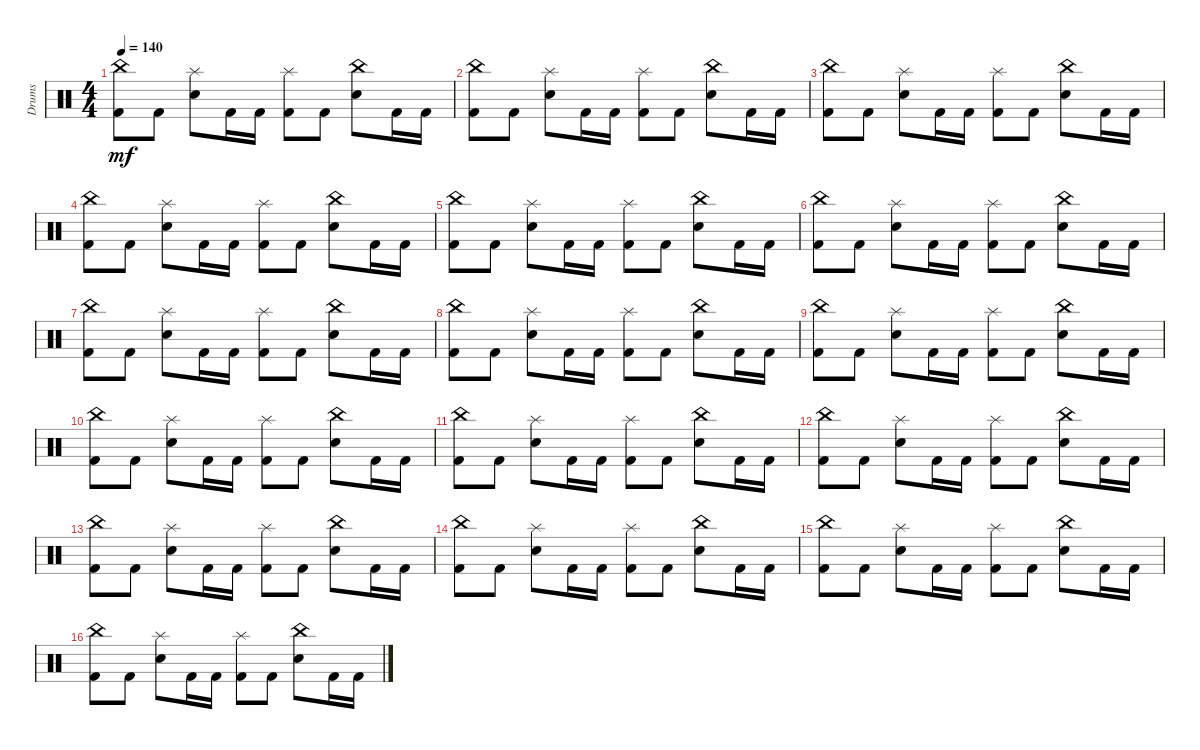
\track ("Drums" "Drums") {instrument percussion}
\staff {score}
\articulation defaults
\ts (4 4)
\tempo 140
\clef neutral
\ks c
("China (hit)" "Kick (hit) 2").8{dy mf} "Kick (hit) 2".8 ("Splash (hit)" "Electric Snare (hit)").8 "Kick (hit) 2".16 "Kick (hit) 2".16 ("Kick (hit) 2" "Splash (hit)").8 "Kick (hit) 2".8 ("Electric Snare (hit)" "China (hit)").8 "Kick (hit) 2".16 "Kick (hit) 2".16 |
("China (hit)" "Kick (hit) 2").8 "Kick (hit) 2".8 ("Electric Snare (hit)" "Splash (hit)").8 "Kick (hit) 2".16 "Kick (hit) 2".16 ("Kick (hit) 2" "Splash (hit)").8 "Kick (hit) 2".8 ("Electric Snare (hit)" "China (hit)").8 "Kick (hit) 2".16 "Kick (hit) 2".16 |
("China (hit)" "Kick (hit) 2").8 "Kick (hit) 2".8 ("Splash (hit)" "Electric Snare (hit)").8 "Kick (hit) 2".16 "Kick (hit) 2".16 ("Splash (hit)" "Kick (hit) 2").8 "Kick (hit) 2".8 ("Electric Snare (hit)" "China (hit)").8 "Kick (hit) 2".16 "Kick (hit) 2".16 |
("China (hit)" "Kick (hit) 2").8 "Kick (hit) 2".8 ("Electric Snare (hit)" "Splash (hit)").8 "Kick (hit) 2".16 "Kick (hit) 2".16 ("Kick (hit) 2" "Splash (hit)").8 "Kick (hit) 2".8 ("Electric Snare (hit)" "China (hit)").8 "Kick (hit) 2".16 "Kick (hit) 2".16 |
("China (hit)" "Kick (hit) 2").8 "Kick (hit) 2".8 ("Electric Snare (hit)" "Splash (hit)").8 "Kick (hit) 2".16 "Kick (hit) 2".16 ("Kick (hit) 2" "Splash (hit)").8 "Kick (hit) 2".8 ("Electric Snare (hit)" "China (hit)").8 "Kick (hit) 2".16 "Kick (hit) 2".16 |
("China (hit)" "Kick (hit) 2").8 "Kick (hit) 2".8 ("Splash (hit)" "Electric Snare (hit)").8 "Kick (hit) 2".16 "Kick (hit) 2".16 ("Kick (hit) 2" "Splash (hit)").8 "Kick (hit) 2".8 ("Electric Snare (hit)" "China (hit)").8 "Kick (hit) 2".16 "Kick (hit) 2".16 |
("China (hit)" "Kick (hit) 2").8 "Kick (hit) 2".8 ("Electric Snare (hit)" "Splash (hit)").8 "Kick (hit) 2".16 "Kick (hit) 2".16 ("Kick (hit) 2" "Splash (hit)").8 "Kick (hit) 2".8 ("Electric Snare (hit)" "China (hit)").8 "Kick (hit) 2".16 "Kick (hit) 2".16 |
("China (hit)" "Kick (hit) 2").8 "Kick (hit) 2".8 ("Splash (hit)" "Electric Snare (hit)").8 "Kick (hit) 2".16 "Kick (hit) 2".16 ("Splash (hit)" "Kick (hit) 2").8 "Kick (hit) 2".8 ("Electric Snare (hit)" "China (hit)").8 "Kick (hit) 2".16 "Kick (hit) 2".16 |
("China (hit)" "Kick (hit) 2").8 "Kick (hit) 2".8 ("Splash (hit)" "Electric Snare (hit)").8 "Kick (hit) 2".16 "Kick (hit) 2".16 ("Splash (hit)" "Kick (hit) 2").8 "Kick (hit) 2".8 ("Electric Snare (hit)" "China (hit)").8 "Kick (hit) 2".16 "Kick (hit) 2".16 |
("China (hit)" "Kick (hit) 2").8 "Kick (hit) 2".8 ("Electric Snare (hit)" "Splash (hit)").8 "Kick (hit) 2".16 "Kick (hit) 2".16 ("Kick (hit) 2" "Splash (hit)").8 "Kick (hit) 2".8 ("Electric Snare (hit)" "China (hit)").8 "Kick (hit) 2".16 "Kick (hit) 2".16 |
("China (hit)" "Kick (hit) 2").8 "Kick (hit) 2".8 ("Splash (hit)" "Electric Snare (hit)").8 "Kick (hit) 2".16 "Kick (hit) 2".16 ("Kick (hit) 2" "Splash (hit)").8 "Kick (hit) 2".8 ("Electric Snare (hit)" "China (hit)").8 "Kick (hit) 2".16 "Kick (hit) 2".16 |
("China (hit)" "Kick (hit) 2").8 "Kick (hit) 2".8 ("Electric Snare (hit)" "Splash (hit)").8 "Kick (hit) 2".16 "Kick (hit) 2".16 ("Kick (hit) 2" "Splash (hit)").8 "Kick (hit) 2".8 ("Electric Snare (hit)" "China (hit)").8 "Kick (hit) 2".16 "Kick (hit) 2".16 |
("China (hit)" "Kick (hit) 2").8 "Kick (hit) 2".8 ("Splash (hit)" "Electric Snare (hit)").8 "Kick (hit) 2".16 "Kick (hit) 2".16 ("Splash (hit)" "Kick (hit) 2").8 "Kick (hit) 2".8 ("Electric Snare (hit)" "China (hit)").8 "Kick (hit) 2".16 "Kick (hit) 2".16 |
("China (hit)" "Kick (hit) 2").8 "Kick (hit) 2".8 ("Electric Snare (hit)" "Splash (hit)").8 "Kick (hit) 2".16 "Kick (hit) 2".16 ("Kick (hit) 2" "Splash (hit)").8 "Kick (hit) 2".8 ("Electric Snare (hit)" "China (hit)").8 "Kick (hit) 2".16 "Kick (hit) 2".16 |
("China (hit)" "Kick (hit) 2").8 "Kick (hit) 2".8 ("Electric Snare (hit)" "Splash (hit)").8 "Kick (hit) 2".16 "Kick (hit) 2".16 ("Kick (hit) 2" "Splash (hit)").8 "Kick (hit) 2".8 ("Electric Snare (hit)" "China (hit)").8 "Kick (hit) 2".16 "Kick (hit) 2".16 |
("China (hit)" "Kick (hit) 2").8 "Kick (hit) 2".8 ("Splash (hit)" "Electric Snare (hit)").8 "Kick (hit) 2".16 "Kick (hit) 2".16 ("Kick (hit) 2" "Splash (hit)").8 "Kick (hit) 2".8 ("Electric Snare (hit)" "China (hit)").8 "Kick (hit) 2".16 "Kick (hit) 2".16
